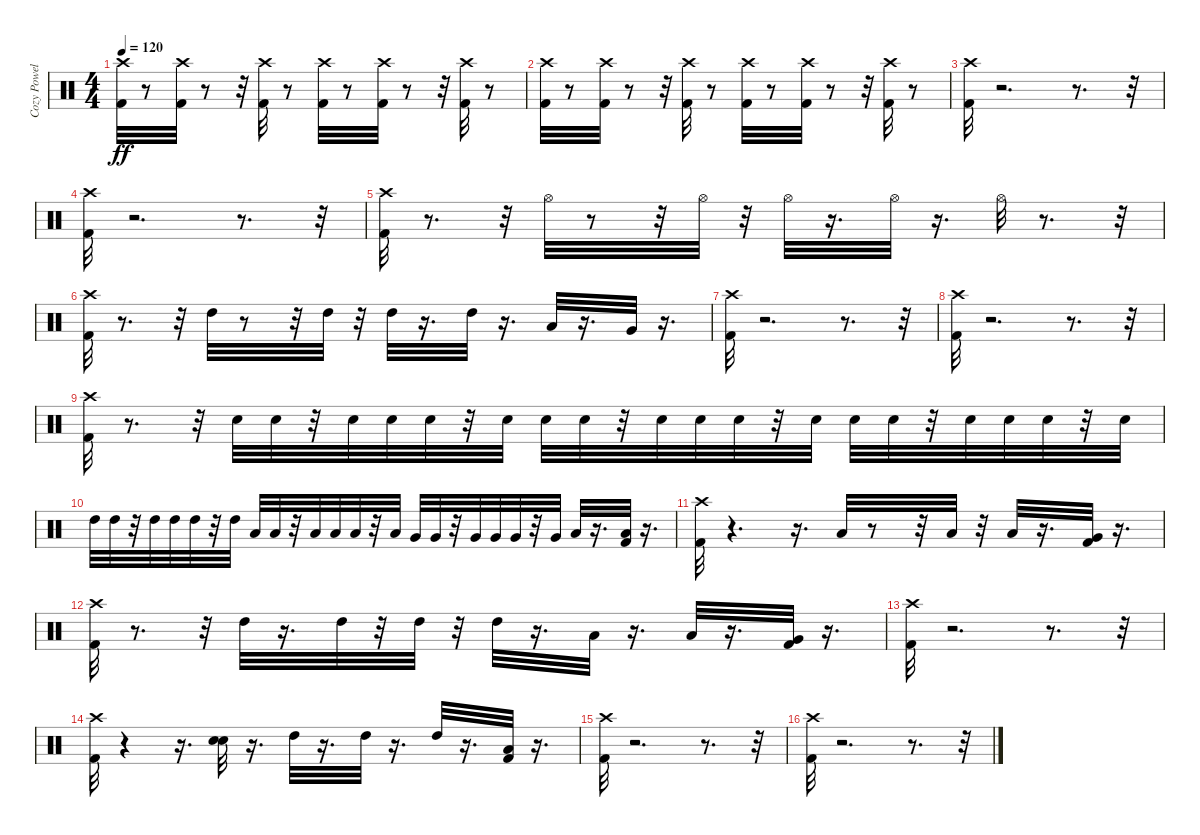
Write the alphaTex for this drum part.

\track ("Cozy Powel" "Cozy Powel") {instrument percussion}
\staff {score}
\articulation defaults
\ts (4 4)
\tempo 120
\clef neutral
\ks c
("Kick (hit) 2" "Crash high (hit)").32{dy ff} r.8 ("Kick (hit) 2" "Crash high (hit)").32 r.8 r.32 ("Kick (hit) 2" "Crash high (hit)").32 r.8 ("Kick (hit) 2" "Crash high (hit)").32 r.8 ("Kick (hit) 2" "Crash high (hit)").32 r.8 r.32 ("Kick (hit) 2" "Crash high (hit)").32 r.8 |
("Kick (hit) 2" "Crash high (hit)").32 r.8 ("Kick (hit) 2" "Crash high (hit)").32 r.8 r.32 ("Kick (hit) 2" "Crash high (hit)").32 r.8 ("Kick (hit) 2" "Crash high (hit)").32 r.8 ("Kick (hit) 2" "Crash high (hit)").32 r.8 r.32 ("Kick (hit) 2" "Crash high (hit)").32 r.8 |
("Kick (hit) 2" "Crash high (hit)").32 r.2{d} r.8{d} r.32 |
("Kick (hit) 2" "Crash high (hit)").32 r.2{d} r.8{d} r.32 |
("Kick (hit) 2" "Crash high (hit)").32 r.8{d} r.32 "Hi-Hat (open)".32 r.8 r.32 "Hi-Hat (open)".32 r.32 "Hi-Hat (open)".32 r.16{d} "Hi-Hat (open)".32 r.16{d} "Hi-Hat (open)".32 r.8{d} r.32 |
("Kick (hit) 2" "Crash high (hit)").32 r.8{d} r.32 "High Tom (hit)".32 r.8 r.32 "High Tom (hit)".32 r.32 "High Tom (hit)".32 r.16{d} "High Tom (hit)".32 r.16{d} "Low Tom (hit)".32 r.16{d} "Very Low Tom (hit)".32 r.16{d} |
("Crash high (hit)" "Kick (hit) 2").32 r.2{d} r.8{d} r.32 |
("Kick (hit) 2" "Crash high (hit)").32 r.2{d} r.8{d} r.32 |
("Crash high (hit)" "Kick (hit) 2").32 r.8{d} r.32 "Snare (hit) 2".32 "Snare (hit) 2".32 r.32 "Snare (hit) 2".32 "Snare (hit) 2".32 "Snare (hit) 2".32 r.32 "Snare (hit) 2".32 "Snare (hit) 2".32 "Snare (hit) 2".32 r.32 "Snare (hit) 2".32 "Snare (hit) 2".32 "Snare (hit) 2".32 r.32 "Snare (hit) 2".32 "Snare (hit) 2".32 "Snare (hit) 2".32 r.32 "Snare (hit) 2".32 "Snare (hit) 2".32 "Snare (hit) 2".32 r.32 "Snare (hit) 2".32 |
"High Tom (hit)".32 "High Tom (hit)".32 r.32 "High Tom (hit)".32 "High Tom (hit)".32 "High Tom (hit)".32 r.32 "High Tom (hit)".32 "Low Tom (hit)".32 "Low Tom (hit)".32 r.32 "Low Tom (hit)".32 "Low Tom (hit)".32 "Low Tom (hit)".32 r.32 "Low Tom (hit)".32 "Very Low Tom (hit)".32 "Very Low Tom (hit)".32 r.32 "Very Low Tom (hit)".32 "Very Low Tom (hit)".32 "Very Low Tom (hit)".32 r.32 "Very Low Tom (hit)".32 "Low Floor Tom (hit)".32 r.16{d} ("Low Floor Tom (hit)" "Kick (hit) 2").32 r.16{d} |
("Kick (hit) 2" "Crash high (hit)").32 r.4{d} r.16{d} "Low Tom (hit)".32 r.8 r.32 "Low Tom (hit)".32 r.32 "Low Tom (hit)".32 r.16{d} ("Kick (hit) 2" "Very Low Tom (hit)").32 r.16{d} |
("Crash high (hit)" "Kick (hit) 2").32 r.8{d} r.32 "High Tom (hit)".32 r.16{d} "High Tom (hit)".32 r.32 "High Tom (hit)".32 r.32 "High Tom (hit)".32 r.16{d} "Low Tom (hit)".32 r.16{d} "Low Tom (hit)".32 r.16{d} ("Kick (hit) 2" "Very Low Tom (hit)").32 r.16{d} |
("Crash high (hit)" "Kick (hit) 2").32 r.2{d} r.8{d} r.32 |
("Kick (hit) 2" "Crash high (hit)").32 r.4 r.16{d} ("Snare (hit) 2" "Snare (hit) 2").32 r.16{d} "High Tom (hit)".32 r.16{d} "High Tom (hit)".32 r.16{d} "High Tom (hit)".32 r.16{d} ("Kick (hit) 2" "Low Tom (hit)").32 r.16{d} |
("Kick (hit) 2" "Crash high (hit)").32 r.2{d} r.8{d} r.32 |
("Kick (hit) 2" "Crash high (hit)").32 r.2{d} r.8{d} r.32
